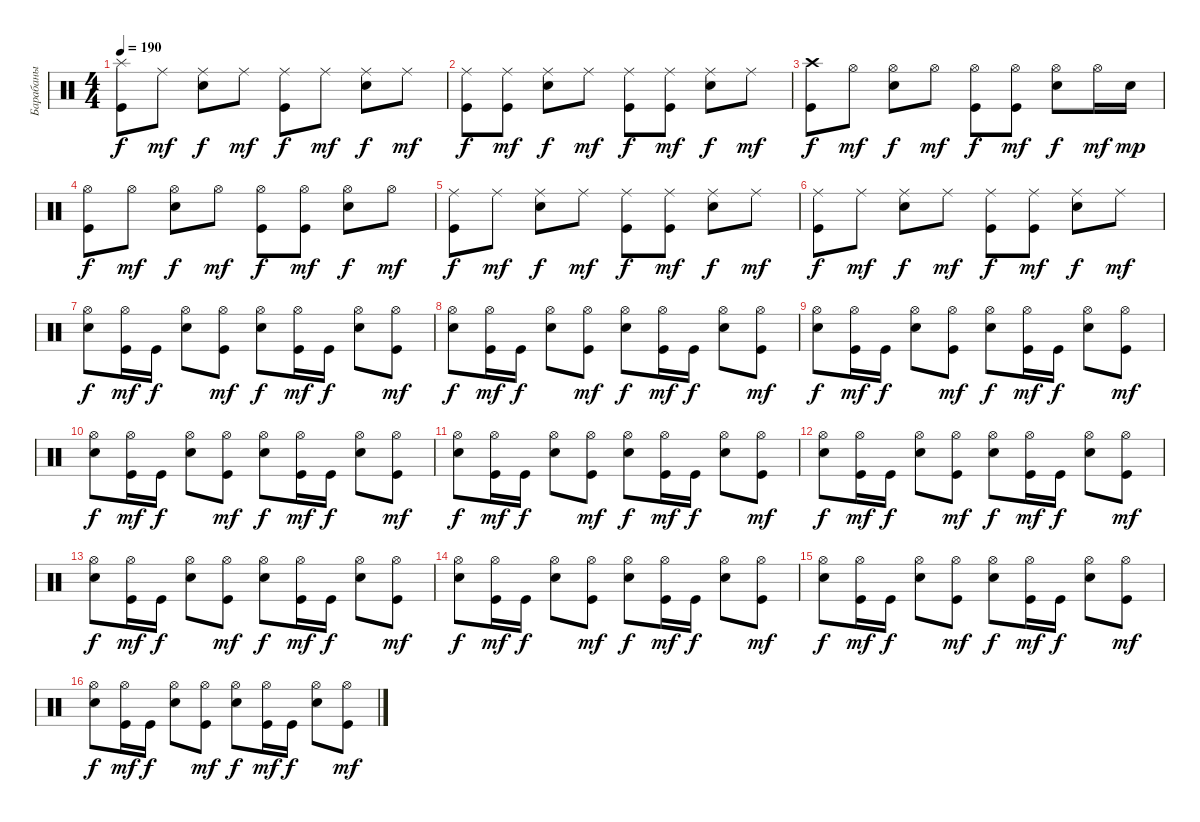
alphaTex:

\track ("Барабаны" "Барабаны") {instrument percussion}
\staff {score}
\articulation defaults
\ts (4 4)
\tempo 190
\clef neutral
\ks c
("Splash (hit)" "Kick (hit)").8{dy f} "Ride (middle)".8{dy mf} ("Ride (middle)" "Electric Snare (hit)").8{dy f} "Ride (middle)".8{dy mf} ("Ride (middle)" "Kick (hit)").8{dy f} "Ride (middle)".8{dy mf} ("Ride (middle)" "Electric Snare (hit)").8{dy f} "Ride (middle)".8{dy mf} |
("Ride (middle)" "Kick (hit)").8{dy f} ("Ride (middle)" "Kick (hit)").8{dy mf} ("Ride (middle)" "Electric Snare (hit)").8{dy f} "Ride (middle)".8{dy mf} ("Ride (middle)" "Kick (hit)").8{dy f} ("Ride (middle)" "Kick (hit)").8{dy mf} ("Ride (middle)" "Electric Snare (hit)").8{dy f} "Ride (middle)".8{dy mf} |
("Crash high (hit)" "Kick (hit)").8{dy f} "Hi-Hat (open)".8{dy mf} ("Hi-Hat (open)" "Electric Snare (hit)").8{dy f} "Hi-Hat (open)".8{dy mf} ("Hi-Hat (open)" "Kick (hit)").8{dy f} ("Hi-Hat (open)" "Kick (hit)").8{dy mf} ("Hi-Hat (open)" "Electric Snare (hit)").8{dy f} "Hi-Hat (open)".16{dy mf} "Electric Snare (hit)".16{dy mp} |
("Hi-Hat (open)" "Kick (hit)").8{dy f} "Hi-Hat (open)".8{dy mf} ("Hi-Hat (open)" "Electric Snare (hit)").8{dy f} "Hi-Hat (open)".8{dy mf} ("Hi-Hat (open)" "Kick (hit)").8{dy f} ("Hi-Hat (open)" "Kick (hit)").8{dy mf} ("Hi-Hat (open)" "Electric Snare (hit)").8{dy f} "Hi-Hat (open)".8{dy mf} |
("Ride (middle)" "Kick (hit)").8{dy f} "Ride (middle)".8{dy mf} ("Ride (middle)" "Electric Snare (hit)").8{dy f} "Ride (middle)".8{dy mf} ("Ride (middle)" "Kick (hit)").8{dy f} ("Ride (middle)" "Kick (hit)").8{dy mf} ("Ride (middle)" "Electric Snare (hit)").8{dy f} "Ride (middle)".8{dy mf} |
("Ride (middle)" "Kick (hit)").8{dy f} "Ride (middle)".8{dy mf} ("Ride (middle)" "Electric Snare (hit)").8{dy f} "Ride (middle)".8{dy mf} ("Ride (middle)" "Kick (hit)").8{dy f} ("Ride (middle)" "Kick (hit)").8{dy mf} ("Ride (middle)" "Electric Snare (hit)").8{dy f} "Ride (middle)".8{dy mf} |
("Hi-Hat (open)" "Electric Snare (hit)").8{dy f} ("Hi-Hat (open)" "Kick (hit)").16{dy mf} "Kick (hit)".16{dy f} ("Hi-Hat (open)" "Electric Snare (hit)").8 ("Hi-Hat (open)" "Kick (hit)").8{dy mf} ("Hi-Hat (open)" "Electric Snare (hit)").8{dy f} ("Hi-Hat (open)" "Kick (hit)").16{dy mf} "Kick (hit)".16{dy f} ("Hi-Hat (open)" "Electric Snare (hit)").8 ("Hi-Hat (open)" "Kick (hit)").8{dy mf} |
("Hi-Hat (open)" "Electric Snare (hit)").8{dy f} ("Hi-Hat (open)" "Kick (hit)").16{dy mf} "Kick (hit)".16{dy f} ("Hi-Hat (open)" "Electric Snare (hit)").8 ("Hi-Hat (open)" "Kick (hit)").8{dy mf} ("Hi-Hat (open)" "Electric Snare (hit)").8{dy f} ("Hi-Hat (open)" "Kick (hit)").16{dy mf} "Kick (hit)".16{dy f} ("Hi-Hat (open)" "Electric Snare (hit)").8 ("Hi-Hat (open)" "Kick (hit)").8{dy mf} |
("Hi-Hat (open)" "Electric Snare (hit)").8{dy f} ("Hi-Hat (open)" "Kick (hit)").16{dy mf} "Kick (hit)".16{dy f} ("Hi-Hat (open)" "Electric Snare (hit)").8 ("Hi-Hat (open)" "Kick (hit)").8{dy mf} ("Hi-Hat (open)" "Electric Snare (hit)").8{dy f} ("Hi-Hat (open)" "Kick (hit)").16{dy mf} "Kick (hit)".16{dy f} ("Hi-Hat (open)" "Electric Snare (hit)").8 ("Hi-Hat (open)" "Kick (hit)").8{dy mf} |
("Hi-Hat (open)" "Electric Snare (hit)").8{dy f} ("Hi-Hat (open)" "Kick (hit)").16{dy mf} "Kick (hit)".16{dy f} ("Hi-Hat (open)" "Electric Snare (hit)").8 ("Hi-Hat (open)" "Kick (hit)").8{dy mf} ("Hi-Hat (open)" "Electric Snare (hit)").8{dy f} ("Hi-Hat (open)" "Kick (hit)").16{dy mf} "Kick (hit)".16{dy f} ("Hi-Hat (open)" "Electric Snare (hit)").8 ("Hi-Hat (open)" "Kick (hit)").8{dy mf} |
("Hi-Hat (open)" "Electric Snare (hit)").8{dy f} ("Hi-Hat (open)" "Kick (hit)").16{dy mf} "Kick (hit)".16{dy f} ("Hi-Hat (open)" "Electric Snare (hit)").8 ("Hi-Hat (open)" "Kick (hit)").8{dy mf} ("Hi-Hat (open)" "Electric Snare (hit)").8{dy f} ("Hi-Hat (open)" "Kick (hit)").16{dy mf} "Kick (hit)".16{dy f} ("Hi-Hat (open)" "Electric Snare (hit)").8 ("Hi-Hat (open)" "Kick (hit)").8{dy mf} |
("Hi-Hat (open)" "Electric Snare (hit)").8{dy f} ("Hi-Hat (open)" "Kick (hit)").16{dy mf} "Kick (hit)".16{dy f} ("Hi-Hat (open)" "Electric Snare (hit)").8 ("Hi-Hat (open)" "Kick (hit)").8{dy mf} ("Hi-Hat (open)" "Electric Snare (hit)").8{dy f} ("Hi-Hat (open)" "Kick (hit)").16{dy mf} "Kick (hit)".16{dy f} ("Hi-Hat (open)" "Electric Snare (hit)").8 ("Hi-Hat (open)" "Kick (hit)").8{dy mf} |
("Hi-Hat (open)" "Electric Snare (hit)").8{dy f} ("Hi-Hat (open)" "Kick (hit)").16{dy mf} "Kick (hit)".16{dy f} ("Hi-Hat (open)" "Electric Snare (hit)").8 ("Hi-Hat (open)" "Kick (hit)").8{dy mf} ("Hi-Hat (open)" "Electric Snare (hit)").8{dy f} ("Hi-Hat (open)" "Kick (hit)").16{dy mf} "Kick (hit)".16{dy f} ("Hi-Hat (open)" "Electric Snare (hit)").8 ("Hi-Hat (open)" "Kick (hit)").8{dy mf} |
("Hi-Hat (open)" "Electric Snare (hit)").8{dy f} ("Hi-Hat (open)" "Kick (hit)").16{dy mf} "Kick (hit)".16{dy f} ("Hi-Hat (open)" "Electric Snare (hit)").8 ("Hi-Hat (open)" "Kick (hit)").8{dy mf} ("Hi-Hat (open)" "Electric Snare (hit)").8{dy f} ("Hi-Hat (open)" "Kick (hit)").16{dy mf} "Kick (hit)".16{dy f} ("Hi-Hat (open)" "Electric Snare (hit)").8 ("Hi-Hat (open)" "Kick (hit)").8{dy mf} |
("Hi-Hat (open)" "Electric Snare (hit)").8{dy f} ("Hi-Hat (open)" "Kick (hit)").16{dy mf} "Kick (hit)".16{dy f} ("Hi-Hat (open)" "Electric Snare (hit)").8 ("Hi-Hat (open)" "Kick (hit)").8{dy mf} ("Hi-Hat (open)" "Electric Snare (hit)").8{dy f} ("Hi-Hat (open)" "Kick (hit)").16{dy mf} "Kick (hit)".16{dy f} ("Hi-Hat (open)" "Electric Snare (hit)").8 ("Hi-Hat (open)" "Kick (hit)").8{dy mf} |
("Hi-Hat (open)" "Electric Snare (hit)").8{dy f} ("Hi-Hat (open)" "Kick (hit)").16{dy mf} "Kick (hit)".16{dy f} ("Hi-Hat (open)" "Electric Snare (hit)").8 ("Hi-Hat (open)" "Kick (hit)").8{dy mf} ("Hi-Hat (open)" "Electric Snare (hit)").8{dy f} ("Hi-Hat (open)" "Kick (hit)").16{dy mf} "Kick (hit)".16{dy f} ("Hi-Hat (open)" "Electric Snare (hit)").8 ("Hi-Hat (open)" "Kick (hit)").8{dy mf}
